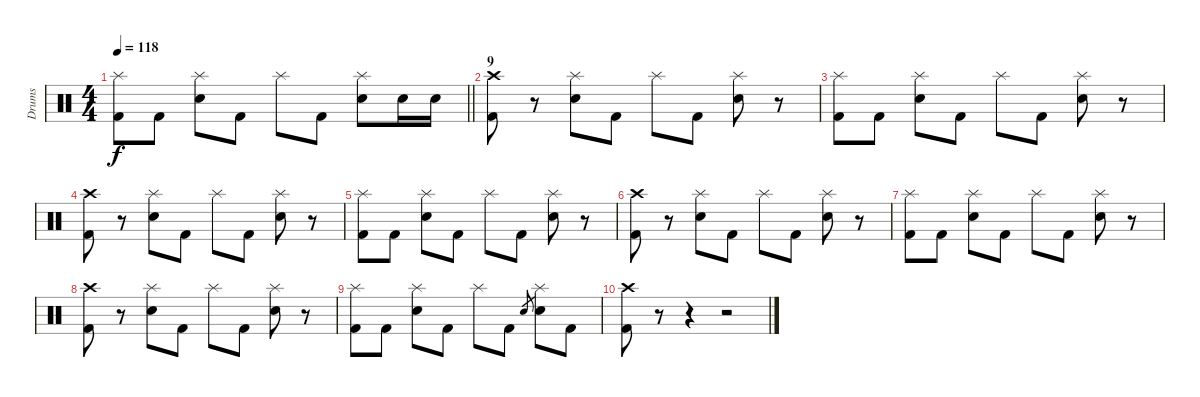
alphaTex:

\track ("Drums" "Drums") {instrument percussion}
\staff {score}
\articulation defaults
\ts (4 4)
\tempo 118
\clef neutral
\barLineRight lightlight
\ks c
("Splash (hit)" "Kick (hit) 2").8{dy f} "Kick (hit) 2".8 ("Splash (hit)" "Electric Snare (hit)").8 "Kick (hit) 2".8 "Splash (hit)".8 "Kick (hit) 2".8 ("Splash (hit)" "Electric Snare (hit)").8 "Electric Snare (hit)".16 "Electric Snare (hit)".16 |
\section ("" "9")
("Crash high (hit)" "Kick (hit) 2").8 r.8 ("Splash (hit)" "Electric Snare (hit)").8 "Kick (hit) 2".8 "Splash (hit)".8 "Kick (hit) 2".8 ("Splash (hit)" "Electric Snare (hit)").8 r.8 |
("Splash (hit)" "Kick (hit) 2").8 "Kick (hit) 2".8 ("Splash (hit)" "Electric Snare (hit)").8 "Kick (hit) 2".8 "Splash (hit)".8 "Kick (hit) 2".8 ("Splash (hit)" "Electric Snare (hit)").8 r.8 |
("Crash high (hit)" "Kick (hit) 2").8 r.8 ("Splash (hit)" "Electric Snare (hit)").8 "Kick (hit) 2".8 "Splash (hit)".8 "Kick (hit) 2".8 ("Splash (hit)" "Electric Snare (hit)").8 r.8 |
("Splash (hit)" "Kick (hit) 2").8 "Kick (hit) 2".8 ("Splash (hit)" "Electric Snare (hit)").8 "Kick (hit) 2".8 "Splash (hit)".8 "Kick (hit) 2".8 ("Splash (hit)" "Electric Snare (hit)").8 r.8 |
("Crash high (hit)" "Kick (hit) 2").8 r.8 ("Splash (hit)" "Electric Snare (hit)").8 "Kick (hit) 2".8 "Splash (hit)".8 "Kick (hit) 2".8 ("Splash (hit)" "Electric Snare (hit)").8 r.8 |
("Splash (hit)" "Kick (hit) 2").8 "Kick (hit) 2".8 ("Splash (hit)" "Electric Snare (hit)").8 "Kick (hit) 2".8 "Splash (hit)".8 "Kick (hit) 2".8 ("Splash (hit)" "Electric Snare (hit)").8 r.8 |
("Crash high (hit)" "Kick (hit) 2").8 r.8 ("Splash (hit)" "Electric Snare (hit)").8 "Kick (hit) 2".8 "Splash (hit)".8 "Kick (hit) 2".8 ("Splash (hit)" "Electric Snare (hit)").8 r.8 |
("Splash (hit)" "Kick (hit) 2").8 "Kick (hit) 2".8 ("Splash (hit)" "Electric Snare (hit)").8 "Kick (hit) 2".8 "Splash (hit)".8 "Kick (hit) 2".8 "Electric Snare (hit)".8{gr} ("Splash (hit)" "Electric Snare (hit)").8 "Kick (hit) 2".8 |
("Crash high (hit)" "Kick (hit) 2").8 r.8 r.4 r.2
